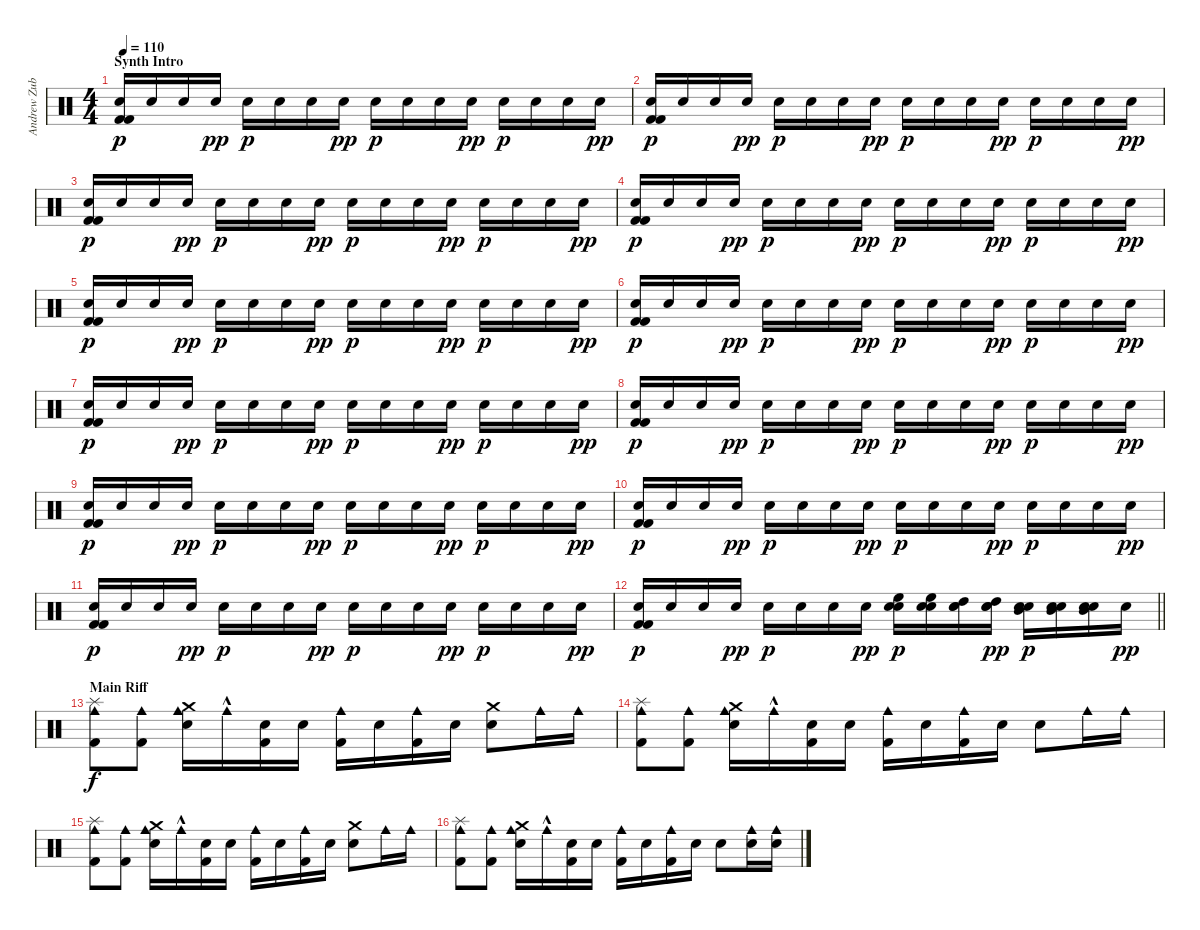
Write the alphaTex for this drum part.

\track ("Andrew Zubiszewski" "Andrew Zub") {instrument percussion}
\staff {score}
\articulation defaults
\ts (4 4)
\section ("" "Synth Intro")
\tempo 110
\clef neutral
\ks c
("Kick (hit) 2" "Kick (hit) 2" "Hand Clap (hit)").16{dy p} "Hand Clap (hit)".16 "Hand Clap (hit)".16 "Hand Clap (hit)".16{dy pp} "Hand Clap (hit)".16{dy p} "Hand Clap (hit)".16 "Hand Clap (hit)".16 "Hand Clap (hit)".16{dy pp} "Hand Clap (hit)".16{dy p} "Hand Clap (hit)".16 "Hand Clap (hit)".16 "Hand Clap (hit)".16{dy pp} "Hand Clap (hit)".16{dy p} "Hand Clap (hit)".16 "Hand Clap (hit)".16 "Hand Clap (hit)".16{dy pp} |
("Kick (hit) 2" "Kick (hit) 2" "Hand Clap (hit)").16{dy p} "Hand Clap (hit)".16 "Hand Clap (hit)".16 "Hand Clap (hit)".16{dy pp} "Hand Clap (hit)".16{dy p} "Hand Clap (hit)".16 "Hand Clap (hit)".16 "Hand Clap (hit)".16{dy pp} "Hand Clap (hit)".16{dy p} "Hand Clap (hit)".16 "Hand Clap (hit)".16 "Hand Clap (hit)".16{dy pp} "Hand Clap (hit)".16{dy p} "Hand Clap (hit)".16 "Hand Clap (hit)".16 "Hand Clap (hit)".16{dy pp} |
("Kick (hit) 2" "Kick (hit) 2" "Hand Clap (hit)").16{dy p} "Hand Clap (hit)".16 "Hand Clap (hit)".16 "Hand Clap (hit)".16{dy pp} "Hand Clap (hit)".16{dy p} "Hand Clap (hit)".16 "Hand Clap (hit)".16 "Hand Clap (hit)".16{dy pp} "Hand Clap (hit)".16{dy p} "Hand Clap (hit)".16 "Hand Clap (hit)".16 "Hand Clap (hit)".16{dy pp} "Hand Clap (hit)".16{dy p} "Hand Clap (hit)".16 "Hand Clap (hit)".16 "Hand Clap (hit)".16{dy pp} |
("Kick (hit) 2" "Kick (hit) 2" "Hand Clap (hit)").16{dy p} "Hand Clap (hit)".16 "Hand Clap (hit)".16 "Hand Clap (hit)".16{dy pp} "Hand Clap (hit)".16{dy p} "Hand Clap (hit)".16 "Hand Clap (hit)".16 "Hand Clap (hit)".16{dy pp} "Hand Clap (hit)".16{dy p} "Hand Clap (hit)".16 "Hand Clap (hit)".16 "Hand Clap (hit)".16{dy pp} "Hand Clap (hit)".16{dy p} "Hand Clap (hit)".16 "Hand Clap (hit)".16 "Hand Clap (hit)".16{dy pp} |
("Kick (hit) 2" "Kick (hit) 2" "Hand Clap (hit)").16{dy p} "Hand Clap (hit)".16 "Hand Clap (hit)".16 "Hand Clap (hit)".16{dy pp} "Hand Clap (hit)".16{dy p} "Hand Clap (hit)".16 "Hand Clap (hit)".16 "Hand Clap (hit)".16{dy pp} "Hand Clap (hit)".16{dy p} "Hand Clap (hit)".16 "Hand Clap (hit)".16 "Hand Clap (hit)".16{dy pp} "Hand Clap (hit)".16{dy p} "Hand Clap (hit)".16 "Hand Clap (hit)".16 "Hand Clap (hit)".16{dy pp} |
("Kick (hit) 2" "Kick (hit) 2" "Hand Clap (hit)").16{dy p} "Hand Clap (hit)".16 "Hand Clap (hit)".16 "Hand Clap (hit)".16{dy pp} "Hand Clap (hit)".16{dy p} "Hand Clap (hit)".16 "Hand Clap (hit)".16 "Hand Clap (hit)".16{dy pp} "Hand Clap (hit)".16{dy p} "Hand Clap (hit)".16 "Hand Clap (hit)".16 "Hand Clap (hit)".16{dy pp} "Hand Clap (hit)".16{dy p} "Hand Clap (hit)".16 "Hand Clap (hit)".16 "Hand Clap (hit)".16{dy pp} |
("Kick (hit) 2" "Kick (hit) 2" "Hand Clap (hit)").16{dy p} "Hand Clap (hit)".16 "Hand Clap (hit)".16 "Hand Clap (hit)".16{dy pp} "Hand Clap (hit)".16{dy p} "Hand Clap (hit)".16 "Hand Clap (hit)".16 "Hand Clap (hit)".16{dy pp} "Hand Clap (hit)".16{dy p} "Hand Clap (hit)".16 "Hand Clap (hit)".16 "Hand Clap (hit)".16{dy pp} "Hand Clap (hit)".16{dy p} "Hand Clap (hit)".16 "Hand Clap (hit)".16 "Hand Clap (hit)".16{dy pp} |
("Kick (hit) 2" "Kick (hit) 2" "Hand Clap (hit)").16{dy p} "Hand Clap (hit)".16 "Hand Clap (hit)".16 "Hand Clap (hit)".16{dy pp} "Hand Clap (hit)".16{dy p} "Hand Clap (hit)".16 "Hand Clap (hit)".16 "Hand Clap (hit)".16{dy pp} "Hand Clap (hit)".16{dy p} "Hand Clap (hit)".16 "Hand Clap (hit)".16 "Hand Clap (hit)".16{dy pp} "Hand Clap (hit)".16{dy p} "Hand Clap (hit)".16 "Hand Clap (hit)".16 "Hand Clap (hit)".16{dy pp} |
("Kick (hit) 2" "Kick (hit) 2" "Hand Clap (hit)").16{dy p} "Hand Clap (hit)".16 "Hand Clap (hit)".16 "Hand Clap (hit)".16{dy pp} "Hand Clap (hit)".16{dy p} "Hand Clap (hit)".16 "Hand Clap (hit)".16 "Hand Clap (hit)".16{dy pp} "Hand Clap (hit)".16{dy p} "Hand Clap (hit)".16 "Hand Clap (hit)".16 "Hand Clap (hit)".16{dy pp} "Hand Clap (hit)".16{dy p} "Hand Clap (hit)".16 "Hand Clap (hit)".16 "Hand Clap (hit)".16{dy pp} |
("Kick (hit) 2" "Kick (hit) 2" "Hand Clap (hit)").16{dy p} "Hand Clap (hit)".16 "Hand Clap (hit)".16 "Hand Clap (hit)".16{dy pp} "Hand Clap (hit)".16{dy p} "Hand Clap (hit)".16 "Hand Clap (hit)".16 "Hand Clap (hit)".16{dy pp} "Hand Clap (hit)".16{dy p} "Hand Clap (hit)".16 "Hand Clap (hit)".16 "Hand Clap (hit)".16{dy pp} "Hand Clap (hit)".16{dy p} "Hand Clap (hit)".16 "Hand Clap (hit)".16 "Hand Clap (hit)".16{dy pp} |
("Kick (hit) 2" "Kick (hit) 2" "Hand Clap (hit)").16{dy p} "Hand Clap (hit)".16 "Hand Clap (hit)".16 "Hand Clap (hit)".16{dy pp} "Hand Clap (hit)".16{dy p} "Hand Clap (hit)".16 "Hand Clap (hit)".16 "Hand Clap (hit)".16{dy pp} "Hand Clap (hit)".16{dy p} "Hand Clap (hit)".16 "Hand Clap (hit)".16 "Hand Clap (hit)".16{dy pp} "Hand Clap (hit)".16{dy p} "Hand Clap (hit)".16 "Hand Clap (hit)".16 "Hand Clap (hit)".16{dy pp} |
\barLineRight lightlight
("Kick (hit) 2" "Kick (hit) 2" "Hand Clap (hit)").16{dy p} "Hand Clap (hit)".16 "Hand Clap (hit)".16 "Hand Clap (hit)".16{dy pp} "Hand Clap (hit)".16{dy p} "Hand Clap (hit)".16 "Hand Clap (hit)".16 "Hand Clap (hit)".16{dy pp} ("Hand Clap (hit)" "Electric Snare (hit)" "High Floor Tom (hit)").16{dy p} ("Hand Clap (hit)" "Electric Snare (hit)" "High Floor Tom (hit)").16 ("Hand Clap (hit)" "Electric Snare (hit)" "High Tom (hit)").16 ("Hand Clap (hit)" "Electric Snare (hit)" "High Tom (hit)").16{dy pp} ("Hand Clap (hit)" "Electric Snare (hit)" "Mid Tom (hit)").16{dy p} ("Hand Clap (hit)" "Mid Tom (hit)" "Electric Snare (hit)").16 ("Hand Clap (hit)" "Electric Snare (hit)" "Mid Tom (hit)").16 "Hand Clap (hit)".16{dy pp} |
\section ("" "Main Riff")
("Kick (hit) 2" "Splash (hit)" "Cowbell medium (hit)").8{dy f} ("Kick (hit) 2" "Cowbell medium (hit)").8 ("Electric Snare (hit)" "Cowbell medium (hit)" "Crash medium (hit)").16 "Cowbell medium (hit)"{hac}.16 ("Kick (hit) 2" "Electric Snare (hit)").16 "Electric Snare (hit)".16 ("Kick (hit) 2" "Cowbell medium (hit)").16 "Electric Snare (hit)".16 ("Kick (hit) 2" "Cowbell medium (hit)").16 "Electric Snare (hit)".16 ("Electric Snare (hit)" "Crash medium (hit)").8 "Cowbell medium (hit)".16 "Cowbell medium (hit)".16 |
("Kick (hit) 2" "Splash (hit)" "Cowbell medium (hit)").8 ("Kick (hit) 2" "Cowbell medium (hit)").8 ("Electric Snare (hit)" "Cowbell medium (hit)" "Crash medium (hit)").16 "Cowbell medium (hit)"{hac}.16 ("Kick (hit) 2" "Electric Snare (hit)").16 "Electric Snare (hit)".16 ("Kick (hit) 2" "Cowbell medium (hit)").16 "Electric Snare (hit)".16 ("Kick (hit) 2" "Cowbell medium (hit)").16 "Electric Snare (hit)".16 "Electric Snare (hit)".8 "Cowbell medium (hit)".16 "Cowbell medium (hit)".16 |
("Kick (hit) 2" "Splash (hit)" "Cowbell medium (hit)").8 ("Kick (hit) 2" "Cowbell medium (hit)").8 ("Electric Snare (hit)" "Cowbell medium (hit)" "Crash medium (hit)").16 "Cowbell medium (hit)"{hac}.16 ("Kick (hit) 2" "Electric Snare (hit)").16 "Electric Snare (hit)".16 ("Kick (hit) 2" "Cowbell medium (hit)").16 "Electric Snare (hit)".16 ("Kick (hit) 2" "Cowbell medium (hit)").16 "Electric Snare (hit)".16 ("Electric Snare (hit)" "Crash medium (hit)").8 "Cowbell medium (hit)".16 "Cowbell medium (hit)".16 |
("Kick (hit) 2" "Splash (hit)" "Cowbell medium (hit)").8 ("Kick (hit) 2" "Cowbell medium (hit)").8 ("Electric Snare (hit)" "Cowbell medium (hit)" "Crash medium (hit)").16 "Cowbell medium (hit)"{hac}.16 ("Kick (hit) 2" "Electric Snare (hit)").16 "Electric Snare (hit)".16 ("Kick (hit) 2" "Cowbell medium (hit)").16 "Electric Snare (hit)".16 ("Kick (hit) 2" "Cowbell medium (hit)").16 "Electric Snare (hit)".16 "Electric Snare (hit)".8 ("Cowbell medium (hit)" "Electric Snare (hit)").16 ("Cowbell medium (hit)" "Electric Snare (hit)").16
